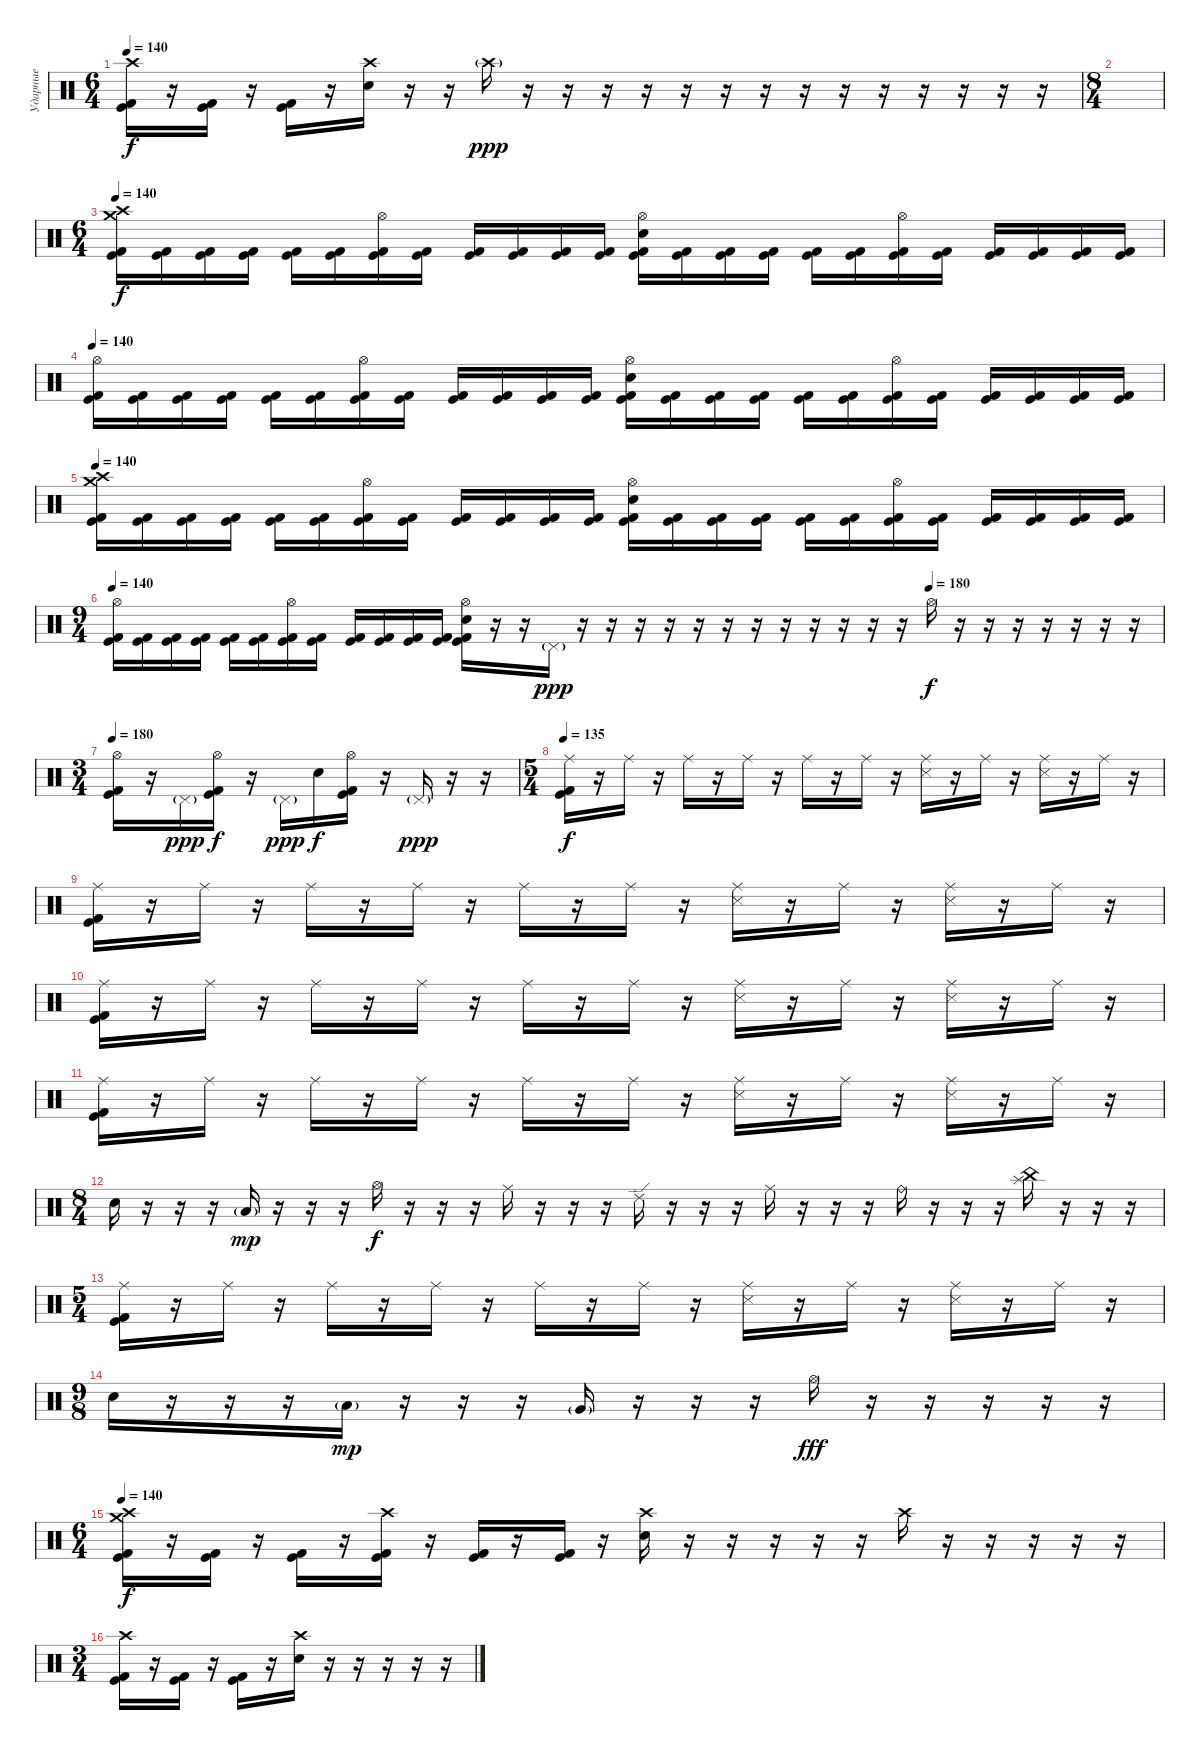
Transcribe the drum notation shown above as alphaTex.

\track ("Ударные" "Ударные") {instrument percussion}
\staff {score}
\articulation defaults
\ts (6 4)
\tempo 140
\clef neutral
\ks c
("Crash high (hit)" "Kick (hit)" "Kick (hit) 2").16{dy f} r.16 ("Kick (hit)" "Kick (hit) 2").16 r.16 ("Kick (hit)" "Kick (hit) 2").16 r.16 ("Crash high (hit)" "Electric Snare (hit)").16 r.16 r.16 "Crash high (hit)"{g}.16{dy ppp} r.16 r.16 r.16 r.16 r.16 r.16 r.16 r.16 r.16 r.16 r.16 r.16 r.16 r.16 |
\ts (8 4)
|
\ts (6 4)
\section ("" "")
\tempo 140
("Crash medium (hit)" "Crash high (hit)" "Kick (hit)" "Kick (hit) 2").16{dy f} ("Kick (hit)" "Kick (hit) 2").16 ("Kick (hit)" "Kick (hit) 2").16 ("Kick (hit)" "Kick (hit) 2").16 ("Kick (hit)" "Kick (hit) 2").16 ("Kick (hit)" "Kick (hit) 2").16 ("Hi-Hat (open)" "Kick (hit)" "Kick (hit) 2").16 ("Kick (hit)" "Kick (hit) 2").16 ("Kick (hit)" "Kick (hit) 2").16 ("Kick (hit)" "Kick (hit) 2").16 ("Kick (hit)" "Kick (hit) 2").16 ("Kick (hit)" "Kick (hit) 2").16 ("Hi-Hat (open)" "Electric Snare (hit)" "Kick (hit)" "Kick (hit) 2").16 ("Kick (hit)" "Kick (hit) 2").16 ("Kick (hit)" "Kick (hit) 2").16 ("Kick (hit)" "Kick (hit) 2").16 ("Kick (hit)" "Kick (hit) 2").16 ("Kick (hit)" "Kick (hit) 2").16 ("Hi-Hat (open)" "Kick (hit)" "Kick (hit) 2").16 ("Kick (hit)" "Kick (hit) 2").16 ("Kick (hit)" "Kick (hit) 2").16 ("Kick (hit)" "Kick (hit) 2").16 ("Kick (hit)" "Kick (hit) 2").16 ("Kick (hit)" "Kick (hit) 2").16 |
\tempo 140
("Hi-Hat (open)" "Kick (hit)" "Kick (hit) 2").16 ("Kick (hit)" "Kick (hit) 2").16 ("Kick (hit)" "Kick (hit) 2").16 ("Kick (hit)" "Kick (hit) 2").16 ("Kick (hit)" "Kick (hit) 2").16 ("Kick (hit)" "Kick (hit) 2").16 ("Hi-Hat (open)" "Kick (hit)" "Kick (hit) 2").16 ("Kick (hit)" "Kick (hit) 2").16 ("Kick (hit)" "Kick (hit) 2").16 ("Kick (hit)" "Kick (hit) 2").16 ("Kick (hit)" "Kick (hit) 2").16 ("Kick (hit)" "Kick (hit) 2").16 ("Hi-Hat (open)" "Electric Snare (hit)" "Kick (hit)" "Kick (hit) 2").16 ("Kick (hit)" "Kick (hit) 2").16 ("Kick (hit)" "Kick (hit) 2").16 ("Kick (hit)" "Kick (hit) 2").16 ("Kick (hit)" "Kick (hit) 2").16 ("Kick (hit)" "Kick (hit) 2").16 ("Hi-Hat (open)" "Kick (hit)" "Kick (hit) 2").16 ("Kick (hit)" "Kick (hit) 2").16 ("Kick (hit)" "Kick (hit) 2").16 ("Kick (hit)" "Kick (hit) 2").16 ("Kick (hit)" "Kick (hit) 2").16 ("Kick (hit)" "Kick (hit) 2").16 |
\tempo 140
("Crash medium (hit)" "Crash high (hit)" "Kick (hit)" "Kick (hit) 2").16 ("Kick (hit)" "Kick (hit) 2").16 ("Kick (hit)" "Kick (hit) 2").16 ("Kick (hit)" "Kick (hit) 2").16 ("Kick (hit)" "Kick (hit) 2").16 ("Kick (hit)" "Kick (hit) 2").16 ("Hi-Hat (open)" "Kick (hit)" "Kick (hit) 2").16 ("Kick (hit)" "Kick (hit) 2").16 ("Kick (hit)" "Kick (hit) 2").16 ("Kick (hit)" "Kick (hit) 2").16 ("Kick (hit)" "Kick (hit) 2").16 ("Kick (hit)" "Kick (hit) 2").16 ("Hi-Hat (open)" "Electric Snare (hit)" "Kick (hit)" "Kick (hit) 2").16 ("Kick (hit)" "Kick (hit) 2").16 ("Kick (hit)" "Kick (hit) 2").16 ("Kick (hit)" "Kick (hit) 2").16 ("Kick (hit)" "Kick (hit) 2").16 ("Kick (hit)" "Kick (hit) 2").16 ("Hi-Hat (open)" "Kick (hit)" "Kick (hit) 2").16 ("Kick (hit)" "Kick (hit) 2").16 ("Kick (hit)" "Kick (hit) 2").16 ("Kick (hit)" "Kick (hit) 2").16 ("Kick (hit)" "Kick (hit) 2").16 ("Kick (hit)" "Kick (hit) 2").16 |
\ts (9 4)
\tempo 140
\tempo (180 0.7777777777777778)
("Hi-Hat (open)" "Kick (hit)" "Kick (hit) 2").16 ("Kick (hit)" "Kick (hit) 2").16 ("Kick (hit)" "Kick (hit) 2").16 ("Kick (hit)" "Kick (hit) 2").16 ("Kick (hit)" "Kick (hit) 2").16 ("Kick (hit)" "Kick (hit) 2").16 ("Hi-Hat (open)" "Kick (hit)" "Kick (hit) 2").16 ("Kick (hit)" "Kick (hit) 2").16 ("Kick (hit)" "Kick (hit) 2").16 ("Kick (hit)" "Kick (hit) 2").16 ("Kick (hit)" "Kick (hit) 2").16 ("Kick (hit)" "Kick (hit) 2").16 ("Hi-Hat (open)" "Electric Snare (hit)" "Kick (hit)" "Kick (hit) 2").16 r.16 r.16 "Pedal Hi-Hat (hit)"{g}.16{dy ppp} r.16 r.16 r.16 r.16 r.16 r.16 r.16 r.16 r.16 r.16 r.16 r.16 "Hi-Hat (open)".16{dy f} r.16 r.16 r.16 r.16 r.16 r.16 r.16 |
\ts (3 4)
\tempo 180
("Hi-Hat (open)" "Kick (hit)" "Kick (hit) 2").16 r.16 "Pedal Hi-Hat (hit)"{g}.16{dy ppp} ("Hi-Hat (open)" "Kick (hit)" "Kick (hit) 2").16{dy f} r.16 "Pedal Hi-Hat (hit)"{g}.16{dy ppp} "Electric Snare (hit)".16{dy f} ("Hi-Hat (open)" "Kick (hit)" "Kick (hit) 2").16 r.16 "Pedal Hi-Hat (hit)"{g}.16{dy ppp} r.16 r.16 |
\ts (5 4)
\section ("" "")
\tempo 135
("Ride (middle)" "Kick (hit)" "Kick (hit) 2").16{dy f} r.16 "Ride (middle)".16 r.16 "Ride (middle)".16 r.16 "Ride (middle)".16 r.16 "Ride (middle)".16 r.16 "Ride (middle)".16 r.16 ("Ride (middle)" "Snare (side stick) 3").16 r.16 "Ride (middle)".16 r.16 ("Ride (middle)" "Snare (side stick) 3").16 r.16 "Ride (middle)".16 r.16 |
("Ride (middle)" "Kick (hit)" "Kick (hit) 2").16 r.16 "Ride (middle)".16 r.16 "Ride (middle)".16 r.16 "Ride (middle)".16 r.16 "Ride (middle)".16 r.16 "Ride (middle)".16 r.16 ("Ride (middle)" "Snare (side stick) 3").16 r.16 "Ride (middle)".16 r.16 ("Ride (middle)" "Snare (side stick) 3").16 r.16 "Ride (middle)".16 r.16 |
("Ride (middle)" "Kick (hit)" "Kick (hit) 2").16 r.16 "Ride (middle)".16 r.16 "Ride (middle)".16 r.16 "Ride (middle)".16 r.16 "Ride (middle)".16 r.16 "Ride (middle)".16 r.16 ("Ride (middle)" "Snare (side stick) 3").16 r.16 "Ride (middle)".16 r.16 ("Ride (middle)" "Snare (side stick) 3").16 r.16 "Ride (middle)".16 r.16 |
("Ride (middle)" "Kick (hit)" "Kick (hit) 2").16 r.16 "Ride (middle)".16 r.16 "Ride (middle)".16 r.16 "Ride (middle)".16 r.16 "Ride (middle)".16 r.16 "Ride (middle)".16 r.16 ("Ride (middle)" "Snare (side stick) 3").16 r.16 "Ride (middle)".16 r.16 ("Ride (middle)" "Snare (side stick) 3").16 r.16 "Ride (middle)".16 r.16 |
\ts (8 4)
"Electric Snare (hit)".16 r.16 r.16 r.16 "Low Tom (hit)"{g}.16{dy mp} r.16 r.16 r.16 "Hi-Hat (open)".16{dy f} r.16 r.16 r.16 "Ride (middle)".16 r.16 r.16 r.16 "Ride (edge) 2".16 r.16 r.16 r.16 "Ride (middle)".16 r.16 r.16 r.16 "Ride (bell)".16 r.16 r.16 r.16 ("Splash (hit)" "China (hit)").16 r.16 r.16 r.16 |
\ts (5 4)
("Ride (middle)" "Kick (hit)" "Kick (hit) 2").16 r.16 "Ride (middle)".16 r.16 "Ride (middle)".16 r.16 "Ride (middle)".16 r.16 "Ride (middle)".16 r.16 "Ride (middle)".16 r.16 ("Ride (middle)" "Snare (side stick) 3").16 r.16 "Ride (middle)".16 r.16 ("Ride (middle)" "Snare (side stick) 3").16 r.16 "Ride (middle)".16 r.16 |
\ts (9 8)
"Electric Snare (hit)".16 r.16 r.16 r.16 "Low Tom (hit)"{g}.16{dy mp} r.16 r.16 r.16 "Very Low Tom (hit)"{g}.16 r.16 r.16 r.16 "Hi-Hat (open)".16{dy fff} r.16 r.16 r.16 r.16 r.16 |
\ts (6 4)
\section ("" "")
\tempo 140
("Crash medium (hit)" "Crash high (hit)" "Kick (hit)" "Kick (hit) 2").16{dy f} r.16 ("Kick (hit)" "Kick (hit) 2").16 r.16 ("Kick (hit)" "Kick (hit) 2").16 r.16 ("Crash high (hit)" "Kick (hit)" "Kick (hit) 2").16 r.16 ("Kick (hit)" "Kick (hit) 2").16 r.16 ("Kick (hit)" "Kick (hit) 2").16 r.16 ("Crash high (hit)" "Electric Snare (hit)").16 r.16 r.16 r.16 r.16 r.16 "Crash high (hit)".16 r.16 r.16 r.16 r.16 r.16 |
\ts (3 4)
("Crash high (hit)" "Kick (hit)" "Kick (hit) 2").16 r.16 ("Kick (hit)" "Kick (hit) 2").16 r.16 ("Kick (hit)" "Kick (hit) 2").16 r.16 ("Crash high (hit)" "Electric Snare (hit)").16 r.16 r.16 r.16 r.16 r.16
